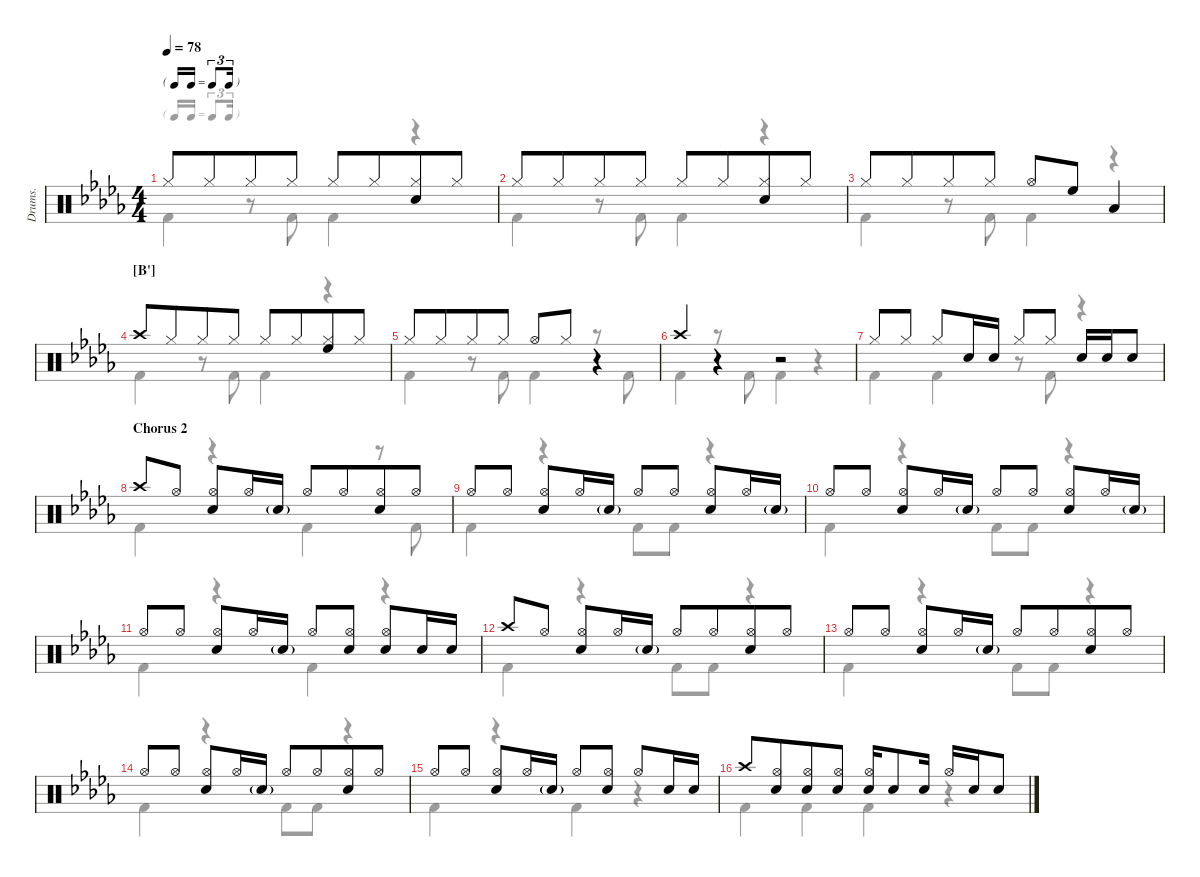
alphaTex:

\defaultSystemsLayout 4
\hideDynamics
\otherSystemsTrackNameOrientation horizontal
\track ("Drumkit" "Drums.") {defaultSystemsLayout 4 instrument percussion}
\staff {score}
\articulation defaults
\voice
\ts (4 4)
\tf triplet16th
\tempo 78
\clef neutral
\ks db "Hi-Hat (closed)"{acc forcenatural}.8{dy mf beam Up} "Hi-Hat (closed)"{acc forcenatural}.8{beam Up beam merge} "Hi-Hat (closed)"{acc forcenatural}.8{beam Up beam merge} "Hi-Hat (closed)"{acc forcenatural}.8{beam Up} "Hi-Hat (closed)"{acc forcenatural}.8{beam Up beam merge} "Hi-Hat (closed)"{acc forcenatural}.8{beam Up beam merge}
("Hi-Hat (closed)"{acc forcenatural} "Snare (hit) 2"{acc forcenatural}).8{beam Up} "Hi-Hat (closed)"{acc forcenatural}.8{beam Up beam merge} |
"Hi-Hat (closed)"{acc forcenatural}.8{beam Up} "Hi-Hat (closed)"{acc forcenatural}.8{beam Up beam merge} "Hi-Hat (closed)"{acc forcenatural}.8{beam Up beam merge} "Hi-Hat (closed)"{acc forcenatural}.8{beam Up} "Hi-Hat (closed)"{acc forcenatural}.8{beam Up beam merge} "Hi-Hat (closed)"{acc forcenatural}.8{beam Up beam merge} ("Hi-Hat (closed)"{acc forcenatural} "Snare (hit) 2"{acc forcenatural}).8{beam Up} "Hi-Hat (closed)"{acc forcenatural}.8{beam Up beam merge} |
"Hi-Hat (closed)"{acc forcenatural}.8{beam Up} "Hi-Hat (closed)"{acc forcenatural}.8{beam Up beam merge} "Hi-Hat (closed)"{acc forcenatural}.8{beam Up beam merge} "Hi-Hat (closed)"{acc forcenatural}.8{beam Up} "Hi-Hat (open)"{acc forcenatural}.8{beam Up beam merge} "High Floor Tom (hit)"{acc forcenatural}.8{beam Up} "Low Tom (hit)"{acc forcenatural}.4{beam Up} |
\section ("B'" "")
"Crash high (hit)"{acc forcenatural}.8{beam Up} "Hi-Hat (closed)"{acc forcenatural}.8{beam Up beam merge} "Hi-Hat (closed)"{acc forcenatural}.8{beam Up beam merge} "Hi-Hat (closed)"{acc forcenatural}.8{beam Up} "Hi-Hat (closed)"{acc forcenatural}.8{beam Up beam merge} "Hi-Hat (closed)"{acc forcenatural}.8{beam Up beam merge} ("Hi-Hat (closed)"{acc forcenatural} "High Floor Tom (hit)"{acc forcenatural}).8{beam Up} "Hi-Hat (closed)"{acc forcenatural}.8{beam Up beam merge} |
"Hi-Hat (closed)"{acc forcenatural}.8{beam Up} "Hi-Hat (closed)"{acc forcenatural}.8{beam Up beam merge} "Hi-Hat (closed)"{acc forcenatural}.8{beam Up beam merge} "Hi-Hat (closed)"{acc forcenatural}.8{beam Up} "Hi-Hat (open)"{acc forcenatural}.8{beam Up} "Hi-Hat (closed)"{acc forcenatural}.8{beam Up} r.4{beam Up} |
"Crash high (hit)"{acc forcenatural}.4{beam Up} r.4{beam Up} r.2{beam Up} |
"Hi-Hat (closed)"{acc forcenatural}.8{beam Up} "Hi-Hat (closed)"{acc forcenatural}.8{beam Up} "Hi-Hat (closed)"{acc forcenatural}.8{beam Up} "Snare (hit) 2"{acc forcenatural}.16{beam Up} "Snare (hit) 2"{acc forcenatural}.16{beam Up} "Hi-Hat (closed)"{acc forcenatural}.8{beam Up} "Hi-Hat (closed)"{acc forcenatural}.8{beam Up} "Snare (hit) 2"{acc forcenatural}.16{beam Up} "Snare (hit) 2"{acc forcenatural}.16{beam Up} "Snare (hit) 2"{acc forcenatural}.8{beam Up} |
\section ("" "Chorus 2")
"Crash high (hit)"{acc forcenatural}.8{beam Up} "Hi-Hat (open)"{acc forcenatural}.8{beam Up} ("Hi-Hat (open)"{acc forcenatural} "Snare (hit) 2"{acc forcenatural}).8{beam Up} "Hi-Hat (open)"{acc forcenatural}.16{beam Up} "Snare (hit) 2"{g acc forcenatural}.16{beam Up} "Hi-Hat (open)"{acc forcenatural}.8{beam Up beam merge} "Hi-Hat (open)"{acc forcenatural}.8{beam Up beam merge} ("Hi-Hat (open)"{acc forcenatural} "Snare (hit) 2"{acc forcenatural}).8{beam Up beam merge} "Hi-Hat (open)"{acc forcenatural}.8{beam Up} |
"Hi-Hat (open)"{acc forcenatural}.8{beam Up} "Hi-Hat (open)"{acc forcenatural}.8{beam Up} ("Hi-Hat (open)"{acc forcenatural} "Snare (hit) 2"{acc forcenatural}).8{beam Up} "Hi-Hat (open)"{acc forcenatural}.16{beam Up} "Snare (hit) 2"{g acc forcenatural}.16{beam Up} "Hi-Hat (open)"{acc forcenatural}.8{beam Up} "Hi-Hat (open)"{acc forcenatural}.8{beam Up} ("Hi-Hat (open)"{acc forcenatural} "Snare (hit) 2"{acc forcenatural}).8{beam Up} "Hi-Hat (open)"{acc forcenatural}.16{beam Up} "Snare (hit) 2"{g acc forcenatural}.16{beam Up} |
"Hi-Hat (open)"{acc forcenatural}.8{beam Up} "Hi-Hat (open)"{acc forcenatural}.8{beam Up} ("Hi-Hat (open)"{acc forcenatural} "Snare (hit) 2"{acc forcenatural}).8{beam Up} "Hi-Hat (open)"{acc forcenatural}.16{beam Up} "Snare (hit) 2"{g acc forcenatural}.16{beam Up} "Hi-Hat (open)"{acc forcenatural}.8{beam Up} "Hi-Hat (open)"{acc forcenatural}.8{beam Up} ("Hi-Hat (open)"{acc forcenatural} "Snare (hit) 2"{acc forcenatural}).8{beam Up} "Hi-Hat (open)"{acc forcenatural}.16{beam Up} "Snare (hit) 2"{g acc forcenatural}.16{beam Up} |
"Hi-Hat (open)"{acc forcenatural}.8{beam Up} "Hi-Hat (open)"{acc forcenatural}.8{beam Up} ("Hi-Hat (open)"{acc forcenatural} "Snare (hit) 2"{acc forcenatural}).8{beam Up} "Hi-Hat (open)"{acc forcenatural}.16{beam Up} "Snare (hit) 2"{g acc forcenatural}.16{beam Up} "Hi-Hat (open)"{acc forcenatural}.8{beam Up beam merge} ("Hi-Hat (open)"{acc forcenatural} "Snare (hit) 2"{acc forcenatural}).8{beam Up beam split} ("Hi-Hat (open)"{acc forcenatural} "Snare (hit) 2"{acc forcenatural}).8{beam Up} "Snare (hit) 2"{acc forcenatural}.16{beam Up} "Snare (hit) 2"{acc forcenatural}.16{beam Up} |
"Crash high (hit)"{acc forcenatural}.8{beam Up} "Hi-Hat (open)"{acc forcenatural}.8{beam Up} ("Hi-Hat (open)"{acc forcenatural} "Snare (hit) 2"{acc forcenatural}).8{beam Up} "Hi-Hat (open)"{acc forcenatural}.16{beam Up} "Snare (hit) 2"{g acc forcenatural}.16{beam Up} "Hi-Hat (open)"{acc forcenatural}.8{beam Up beam merge} "Hi-Hat (open)"{acc forcenatural}.8{beam Up beam merge} ("Hi-Hat (open)"{acc forcenatural} "Snare (hit) 2"{acc forcenatural}).8{beam Up beam merge} "Hi-Hat (open)"{acc forcenatural}.8{beam Up} |
"Hi-Hat (open)"{acc forcenatural}.8{beam Up} "Hi-Hat (open)"{acc forcenatural}.8{beam Up} ("Hi-Hat (open)"{acc forcenatural} "Snare (hit) 2"{acc forcenatural}).8{beam Up} "Hi-Hat (open)"{acc forcenatural}.16{beam Up} "Snare (hit) 2"{g acc forcenatural}.16{beam Up} "Hi-Hat (open)"{acc forcenatural}.8{beam Up beam merge} "Hi-Hat (open)"{acc forcenatural}.8{beam Up beam merge} ("Hi-Hat (open)"{acc forcenatural} "Snare (hit) 2"{acc forcenatural}).8{beam Up beam merge} "Hi-Hat (open)"{acc forcenatural}.8{beam Up} |
"Hi-Hat (open)"{acc forcenatural}.8{beam Up} "Hi-Hat (open)"{acc forcenatural}.8{beam Up} ("Hi-Hat (open)"{acc forcenatural} "Snare (hit) 2"{acc forcenatural}).8{beam Up} "Hi-Hat (open)"{acc forcenatural}.16{beam Up} "Snare (hit) 2"{g acc forcenatural}.16{beam Up} "Hi-Hat (open)"{acc forcenatural}.8{beam Up beam merge} "Hi-Hat (open)"{acc forcenatural}.8{beam Up beam merge} ("Hi-Hat (open)"{acc forcenatural} "Snare (hit) 2"{acc forcenatural}).8{beam Up beam merge} "Hi-Hat (open)"{acc forcenatural}.8{beam Up} |
"Hi-Hat (open)"{acc forcenatural}.8{beam Up} "Hi-Hat (open)"{acc forcenatural}.8{beam Up} ("Hi-Hat (open)"{acc forcenatural} "Snare (hit) 2"{acc forcenatural}).8{beam Up} "Hi-Hat (open)"{acc forcenatural}.16{beam Up} "Snare (hit) 2"{g acc forcenatural}.16{beam Up} "Hi-Hat (open)"{acc forcenatural}.8{beam Up} ("Hi-Hat (open)"{acc forcenatural} "Snare (hit) 2"{acc forcenatural}).8{beam Up} "Hi-Hat (open)"{acc forcenatural}.8{beam Up} "Snare (hit) 2"{acc forcenatural}.16{beam Up} "Snare (hit) 2"{acc forcenatural}.16{beam Up} |
"Crash high (hit)"{acc forcenatural}.8{beam Up} ("Hi-Hat (open)"{acc forcenatural} "Snare (hit) 2"{acc forcenatural}).8{beam Up beam merge} ("Hi-Hat (open)"{acc forcenatural} "Snare (hit) 2"{acc forcenatural}).8{beam Up beam merge} ("Hi-Hat (open)"{acc forcenatural} "Snare (hit) 2"{acc forcenatural}).8{beam Up} ("Hi-Hat (open)"{acc forcenatural} "Snare (hit) 2"{acc forcenatural}).16{beam Up} "Snare (hit) 2"{acc forcenatural}.8{beam Up} "Snare (hit) 2"{acc forcenatural}.16{beam Up} "Hi-Hat (open)"{acc forcenatural}.16{beam Up} "Snare (hit) 2"{acc forcenatural}.16{beam Up} "Snare (hit) 2"{acc forcenatural}.8{beam Up}
\voice
\clef neutral
\ottava regular
\simile none
\ks db "Kick (hit) 2"{acc forcenatural}.4{dy mf beam Down}
r.8{beam Down} "Kick (hit) 2"{acc forcenatural}.8{beam Down} "Kick (hit) 2"{acc forcenatural}.4{beam Down} r.4{beam Down} |
"Kick (hit) 2"{acc forcenatural}.4{beam Down} r.8{beam Down} "Kick (hit) 2"{acc forcenatural}.8{beam Down} "Kick (hit) 2"{acc forcenatural}.4{beam Down} r.4{beam Down} |
"Kick (hit) 2"{acc forcenatural}.4{beam Down} r.8{beam Down} "Kick (hit) 2"{acc forcenatural}.8{beam Down} "Kick (hit) 2"{acc forcenatural}.4{beam Down} r.4{beam Down} |
"Kick (hit) 2"{acc forcenatural}.4{beam Down} r.8{beam Down} "Kick (hit) 2"{acc forcenatural}.8{beam Down} "Kick (hit) 2"{acc forcenatural}.4{beam Down} r.4{beam Down} |
"Kick (hit) 2"{acc forcenatural}.4{beam Down} r.8{beam Down} "Kick (hit) 2"{acc forcenatural}.8{beam Down} "Kick (hit) 2"{acc forcenatural}.4{beam Down} r.8{beam Down} "Kick (hit) 2"{acc forcenatural}.8{beam Down} |
"Kick (hit) 2"{acc forcenatural}.4{beam Down} r.8{beam Down} "Kick (hit) 2"{acc forcenatural}.8{beam Down} "Kick (hit) 2"{acc forcenatural}.4{beam Down} r.4{beam Down} |
"Kick (hit) 2"{acc forcenatural}.4{beam Down} "Kick (hit) 2"{acc forcenatural}.4{beam Down} r.8{beam Down} "Kick (hit) 2"{acc forcenatural}.8{beam Down} r.4{beam Down} |
"Kick (hit) 2"{acc forcenatural}.4{beam Down} r.4{beam Down} "Kick (hit) 2"{acc forcenatural}.4{beam Down} r.8{beam Down} "Kick (hit) 2"{acc forcenatural}.8{beam Down} |
"Kick (hit) 2"{acc forcenatural}.4{beam Down} r.4{beam Down} "Kick (hit) 2"{acc forcenatural}.8{beam Down} "Kick (hit) 2"{acc forcenatural}.8{beam Down} r.4{beam Down} |
"Kick (hit) 2"{acc forcenatural}.4{beam Down} r.4{beam Down} "Kick (hit) 2"{acc forcenatural}.8{beam Down} "Kick (hit) 2"{acc forcenatural}.8{beam Down} r.4{beam Down} |
"Kick (hit) 2"{acc forcenatural}.4{beam Down} r.4{beam Down} "Kick (hit) 2"{acc forcenatural}.4{beam Down} r.4{beam Down} |
"Kick (hit) 2"{acc forcenatural}.4{beam Down} r.4{beam Down} "Kick (hit) 2"{acc forcenatural}.8{beam Down} "Kick (hit) 2"{acc forcenatural}.8{beam Down} r.4{beam Down} |
"Kick (hit) 2"{acc forcenatural}.4{beam Down} r.4{beam Down} "Kick (hit) 2"{acc forcenatural}.8{beam Down} "Kick (hit) 2"{acc forcenatural}.8{beam Down} r.4{beam Down} |
"Kick (hit) 2"{acc forcenatural}.4{beam Down} r.4{beam Down} "Kick (hit) 2"{acc forcenatural}.8{beam Down} "Kick (hit) 2"{acc forcenatural}.8{beam Down} r.4{beam Down} |
"Kick (hit) 2"{acc forcenatural}.4{beam Down} r.4{beam Down} "Kick (hit) 2"{acc forcenatural}.4{beam Down} r.4{beam Down} |
"Kick (hit) 2"{acc forcenatural}.4{beam Down} "Kick (hit) 2"{acc forcenatural}.4{beam Down} "Kick (hit) 2"{acc forcenatural}.4{beam Down} r.4{beam Down}
